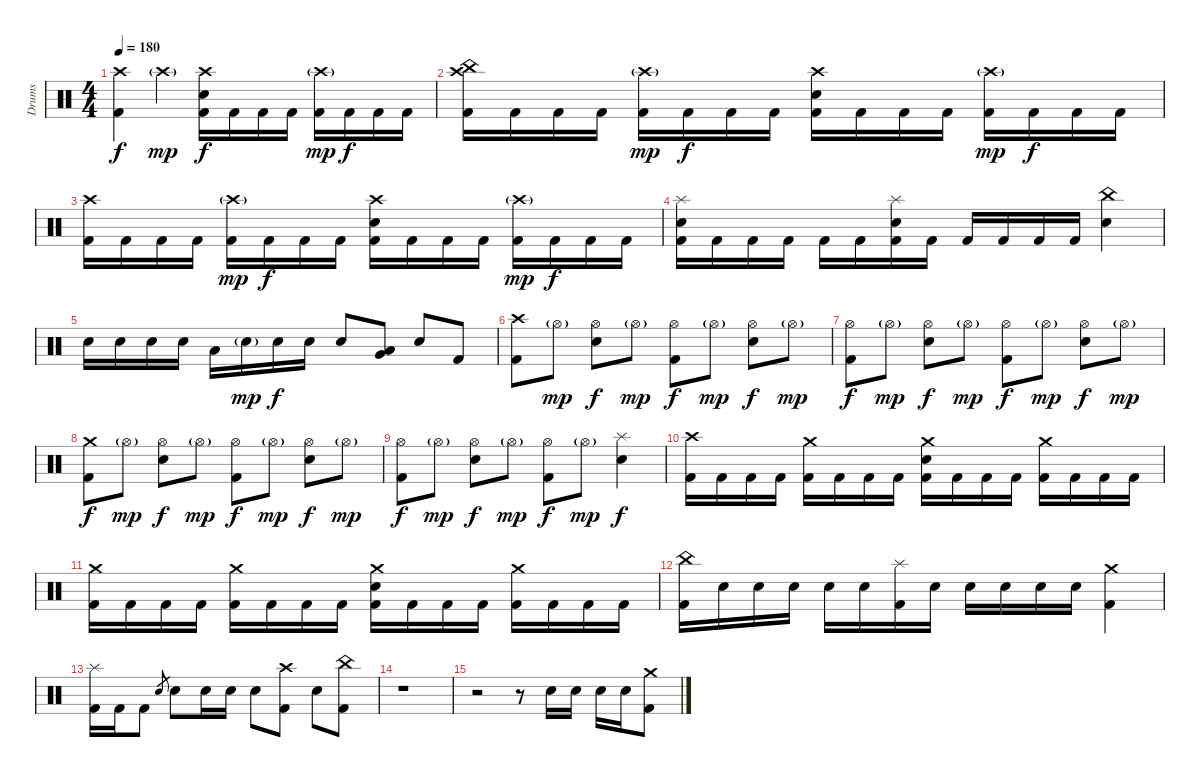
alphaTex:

\track ("Drums" "Drums") {instrument percussion}
\staff {score}
\articulation defaults
\ts (4 4)
\tempo 180
\clef neutral
\ks c
("Crash high (hit)" "Kick (hit) 2").4{dy f} "Crash high (hit)"{g}.4{dy mp} ("Crash high (hit)" "Electric Snare (hit)" "Kick (hit) 2").16{dy f} "Kick (hit) 2".16 "Kick (hit) 2".16 "Kick (hit) 2".16 ("Crash high (hit)"{g} "Kick (hit) 2").16{dy mp} "Kick (hit) 2".16{dy f} "Kick (hit) 2".16 "Kick (hit) 2".16 |
("Crash high (hit)" "China (hit)" "Kick (hit) 2").16 "Kick (hit) 2".16 "Kick (hit) 2".16 "Kick (hit) 2".16 ("Crash high (hit)"{g} "Kick (hit) 2").16{dy mp} "Kick (hit) 2".16{dy f} "Kick (hit) 2".16 "Kick (hit) 2".16 ("Crash high (hit)" "Electric Snare (hit)" "Kick (hit) 2").16 "Kick (hit) 2".16 "Kick (hit) 2".16 "Kick (hit) 2".16 ("Crash high (hit)"{g} "Kick (hit) 2").16{dy mp} "Kick (hit) 2".16{dy f} "Kick (hit) 2".16 "Kick (hit) 2".16 |
("Crash high (hit)" "Kick (hit) 2").16 "Kick (hit) 2".16 "Kick (hit) 2".16 "Kick (hit) 2".16 ("Crash high (hit)"{g} "Kick (hit) 2").16{dy mp} "Kick (hit) 2".16{dy f} "Kick (hit) 2".16 "Kick (hit) 2".16 ("Crash high (hit)" "Electric Snare (hit)" "Kick (hit) 2").16 "Kick (hit) 2".16 "Kick (hit) 2".16 "Kick (hit) 2".16 ("Crash high (hit)"{g} "Kick (hit) 2").16{dy mp} "Kick (hit) 2".16{dy f} "Kick (hit) 2".16 "Kick (hit) 2".16 |
("Splash (hit)" "Electric Snare (hit)" "Kick (hit) 2").16 "Kick (hit) 2".16 "Kick (hit) 2".16 "Kick (hit) 2".16 "Kick (hit) 2".16 "Kick (hit) 2".16 ("Splash (hit)" "Electric Snare (hit)" "Kick (hit) 2").16 "Kick (hit) 2".16 "Kick (hit) 2".16 "Kick (hit) 2".16 "Kick (hit) 2".16 "Kick (hit) 2".16 ("China (hit)" "Electric Snare (hit)").4 |
"Electric Snare (hit)".16 "Electric Snare (hit)".16 "Electric Snare (hit)".16 "Electric Snare (hit)".16 "Low Tom (hit)".16 "Electric Snare (hit)"{g}.16{dy mp} "Electric Snare (hit)".16{dy f} "Electric Snare (hit)".16 "Electric Snare (hit)".8 ("Very Low Tom (hit)" "Low Floor Tom (hit)").8 "Electric Snare (hit)".8 "Kick (hit) 2".8 |
("Crash high (hit)" "Kick (hit) 2").8 "Hi-Hat (open)"{g}.8{dy mp} ("Hi-Hat (open)" "Electric Snare (hit)").8{dy f} "Hi-Hat (open)"{g}.8{dy mp} ("Hi-Hat (open)" "Kick (hit) 2").8{dy f} "Hi-Hat (open)"{g}.8{dy mp} ("Hi-Hat (open)" "Electric Snare (hit)").8{dy f} "Hi-Hat (open)"{g}.8{dy mp} |
("Hi-Hat (open)" "Kick (hit) 2").8{dy f} "Hi-Hat (open)"{g}.8{dy mp} ("Hi-Hat (open)" "Electric Snare (hit)").8{dy f} "Hi-Hat (open)"{g}.8{dy mp} ("Hi-Hat (open)" "Kick (hit) 2").8{dy f} "Hi-Hat (open)"{g}.8{dy mp} ("Hi-Hat (open)" "Electric Snare (hit)").8{dy f} "Hi-Hat (open)"{g}.8{dy mp} |
("Crash medium (hit)" "Kick (hit) 2").8{dy f} "Hi-Hat (open)"{g}.8{dy mp} ("Hi-Hat (open)" "Electric Snare (hit)").8{dy f} "Hi-Hat (open)"{g}.8{dy mp} ("Hi-Hat (open)" "Kick (hit) 2").8{dy f} "Hi-Hat (open)"{g}.8{dy mp} ("Hi-Hat (open)" "Electric Snare (hit)").8{dy f} "Hi-Hat (open)"{g}.8{dy mp} |
("Hi-Hat (open)" "Kick (hit) 2").8{dy f} "Hi-Hat (open)"{g}.8{dy mp} ("Hi-Hat (open)" "Electric Snare (hit)").8{dy f} "Hi-Hat (open)"{g}.8{dy mp} ("Hi-Hat (open)" "Kick (hit) 2").8{dy f} "Hi-Hat (open)"{g}.8{dy mp} ("Splash (hit)" "Electric Snare (hit)").4{dy f} |
("Crash high (hit)" "Kick (hit) 2").16 "Kick (hit) 2".16 "Kick (hit) 2".16 "Kick (hit) 2".16 ("Crash medium (hit)" "Kick (hit) 2").16 "Kick (hit) 2".16 "Kick (hit) 2".16 "Kick (hit) 2".16 ("Crash medium (hit)" "Electric Snare (hit)" "Kick (hit) 2").16 "Kick (hit) 2".16 "Kick (hit) 2".16 "Kick (hit) 2".16 ("Crash medium (hit)" "Kick (hit) 2").16 "Kick (hit) 2".16 "Kick (hit) 2".16 "Kick (hit) 2".16 |
("Crash medium (hit)" "Kick (hit) 2").16 "Kick (hit) 2".16 "Kick (hit) 2".16 "Kick (hit) 2".16 ("Crash medium (hit)" "Kick (hit) 2").16 "Kick (hit) 2".16 "Kick (hit) 2".16 "Kick (hit) 2".16 ("Crash medium (hit)" "Electric Snare (hit)" "Kick (hit) 2").16 "Kick (hit) 2".16 "Kick (hit) 2".16 "Kick (hit) 2".16 ("Crash medium (hit)" "Kick (hit) 2").16 "Kick (hit) 2".16 "Kick (hit) 2".16 "Kick (hit) 2".16 |
("China (hit)" "Kick (hit) 2").16 "Electric Snare (hit)".16 "Electric Snare (hit)".16 "Electric Snare (hit)".16 "Electric Snare (hit)".16 "Electric Snare (hit)".16 ("Splash (hit)" "Kick (hit) 2").16 "Electric Snare (hit)".16 "Electric Snare (hit)".16 "Electric Snare (hit)".16 "Electric Snare (hit)".16 "Electric Snare (hit)".16 ("Crash medium (hit)" "Kick (hit) 2").4 |
("Splash (hit)" "Kick (hit) 2").16 "Kick (hit) 2".16 "Kick (hit) 2".8 "Electric Snare (hit)".8{gr} "Electric Snare (hit)".8 "Electric Snare (hit)".16 "Electric Snare (hit)".16 "Electric Snare (hit)".8 ("Crash high (hit)" "Kick (hit) 2").8 "Electric Snare (hit)".8 ("China (hit)" "Kick (hit) 2").8 |
r.1 |
r.2 r.8 "Electric Snare (hit)".16 "Electric Snare (hit)".16 "Electric Snare (hit)".16 "Electric Snare (hit)".16 ("Crash medium (hit)" "Kick (hit) 2").8
